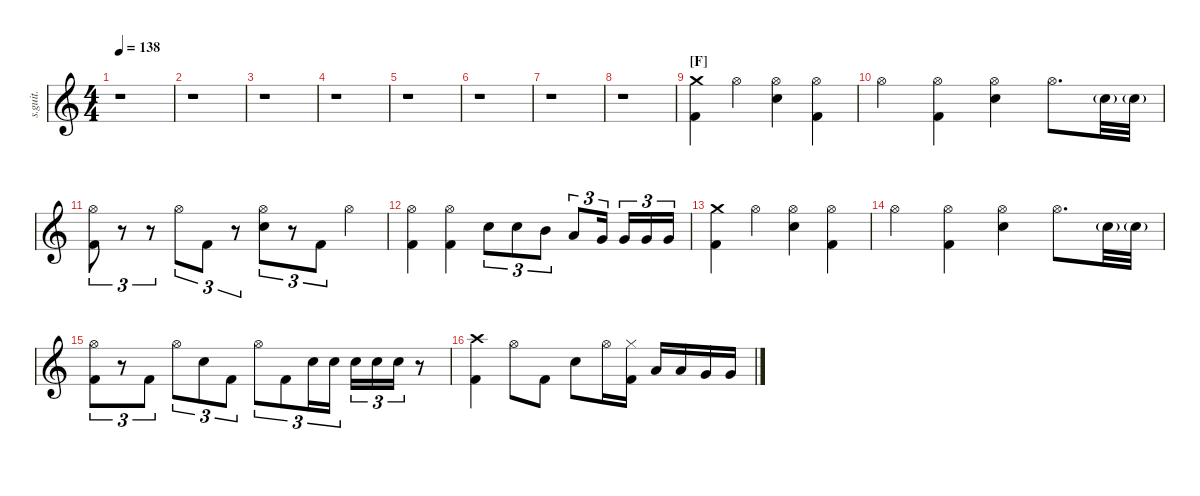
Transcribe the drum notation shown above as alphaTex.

\defaultSystemsLayout 4
\hideDynamics
\bracketExtendMode nobrackets
\track ("Nathan Camarena" "s.guit.") {instrument percussion}
\staff {score}
\articulation defaults
\ts (4 4)
\tempo 138
\clef g2
\ks c
r.1{dy fff} |
r.1 |
r.1 |
r.1 |
r.1 |
r.1 |
r.1 |
r.1 |
\section ("F" "")
("Kick (hit) 2" "Crash medium (hit)").4{lyrics (0 "") lyrics (1 "") lyrics (2 "") lyrics (3 "") lyrics (4 "") dy f} "Hi-Hat (open)".4{lyrics (0 "") lyrics (1 "") lyrics (2 "") lyrics (3 "") lyrics (4 "")} ("Snare (hit) 2" "Hi-Hat (open)").4{lyrics (0 "") lyrics (1 "") lyrics (2 "") lyrics (3 "") lyrics (4 "")} ("Hi-Hat (open)" "Kick (hit) 2").4{lyrics (0 "") lyrics (1 "") lyrics (2 "") lyrics (3 "") lyrics (4 "")} |
"Hi-Hat (open)".4{lyrics (0 "") lyrics (1 "") lyrics (2 "") lyrics (3 "") lyrics (4 "")} ("Hi-Hat (open)" "Kick (hit) 2").4{lyrics (0 "") lyrics (1 "") lyrics (2 "") lyrics (3 "") lyrics (4 "")} ("Snare (hit) 2" "Hi-Hat (open)").4{lyrics (0 "") lyrics (1 "") lyrics (2 "") lyrics (3 "") lyrics (4 "")} "Hi-Hat (open)".8{d lyrics (0 "") lyrics (1 "") lyrics (2 "") lyrics (3 "") lyrics (4 "")} "Snare (hit) 2"{g}.32{lyrics (0 "") lyrics (1 "") lyrics (2 "") lyrics (3 "") lyrics (4 "")} "Snare (hit) 2"{g}.32{lyrics (0 "") lyrics (1 "") lyrics (2 "") lyrics (3 "") lyrics (4 "")} |
("Kick (hit) 2" "Hi-Hat (open)").8{tu (3 2) lyrics (0 "") lyrics (1 "") lyrics (2 "") lyrics (3 "") lyrics (4 "")} r.8{tu (3 2)} r.8{tu (3 2)} "Hi-Hat (open)".8{tu (3 2) lyrics (0 "") lyrics (1 "") lyrics (2 "") lyrics (3 "") lyrics (4 "")} "Kick (hit) 2".8{tu (3 2) lyrics (0 "") lyrics (1 "") lyrics (2 "") lyrics (3 "") lyrics (4 "")} r.8{tu (3 2)} ("Snare (hit) 2" "Hi-Hat (open)").8{tu (3 2) lyrics (0 "") lyrics (1 "") lyrics (2 "") lyrics (3 "") lyrics (4 "")} r.8{tu (3 2)} "Kick (hit) 2".8{tu (3 2) lyrics (0 "") lyrics (1 "") lyrics (2 "") lyrics (3 "") lyrics (4 "")} "Hi-Hat (open)".4{lyrics (0 "") lyrics (1 "") lyrics (2 "") lyrics (3 "") lyrics (4 "")} |
("Hi-Hat (open)" "Kick (hit) 2").4{lyrics (0 "") lyrics (1 "") lyrics (2 "") lyrics (3 "") lyrics (4 "")} ("Hi-Hat (open)" "Kick (hit) 2").4{lyrics (0 "") lyrics (1 "") lyrics (2 "") lyrics (3 "") lyrics (4 "")} "Snare (hit) 2".8{tu (3 2) lyrics (0 "") lyrics (1 "") lyrics (2 "") lyrics (3 "") lyrics (4 "")} "Snare (hit) 2".8{tu (3 2) lyrics (0 "") lyrics (1 "") lyrics (2 "") lyrics (3 "") lyrics (4 "")} "Mid Tom (hit)".8{tu (3 2) lyrics (0 "") lyrics (1 "") lyrics (2 "") lyrics (3 "") lyrics (4 "") dy fff} "Low Tom (hit)".8{tu (3 2) lyrics (0 "") lyrics (1 "") lyrics (2 "") lyrics (3 "") lyrics (4 "")} "Very Low Tom (hit)".16{tu (3 2) lyrics (0 "") lyrics (1 "") lyrics (2 "") lyrics (3 "") lyrics (4 "")} "Very Low Tom (hit)".16{tu (3 2) lyrics (0 "") lyrics (1 "") lyrics (2 "") lyrics (3 "") lyrics (4 "")} "Very Low Tom (hit)".16{tu (3 2) lyrics (0 "") lyrics (1 "") lyrics (2 "") lyrics (3 "") lyrics (4 "")} "Very Low Tom (hit)".16{tu (3 2) lyrics (0 "") lyrics (1 "") lyrics (2 "") lyrics (3 "") lyrics (4 "")} |
("Kick (hit) 2" "Crash medium (hit)").4{lyrics (0 "") lyrics (1 "") lyrics (2 "") lyrics (3 "") lyrics (4 "") dy f} "Hi-Hat (open)".4{lyrics (0 "") lyrics (1 "") lyrics (2 "") lyrics (3 "") lyrics (4 "")} ("Snare (hit) 2" "Hi-Hat (open)").4{lyrics (0 "") lyrics (1 "") lyrics (2 "") lyrics (3 "") lyrics (4 "")} ("Hi-Hat (open)" "Kick (hit) 2").4{lyrics (0 "") lyrics (1 "") lyrics (2 "") lyrics (3 "") lyrics (4 "")} |
"Hi-Hat (open)".4{lyrics (0 "") lyrics (1 "") lyrics (2 "") lyrics (3 "") lyrics (4 "")} ("Hi-Hat (open)" "Kick (hit) 2").4{lyrics (0 "") lyrics (1 "") lyrics (2 "") lyrics (3 "") lyrics (4 "")} ("Snare (hit) 2" "Hi-Hat (open)").4{lyrics (0 "") lyrics (1 "") lyrics (2 "") lyrics (3 "") lyrics (4 "")} "Hi-Hat (open)".8{d lyrics (0 "") lyrics (1 "") lyrics (2 "") lyrics (3 "") lyrics (4 "")} "Snare (hit) 2"{g}.32{lyrics (0 "") lyrics (1 "") lyrics (2 "") lyrics (3 "") lyrics (4 "")} "Snare (hit) 2"{g}.32{lyrics (0 "") lyrics (1 "") lyrics (2 "") lyrics (3 "") lyrics (4 "")} |
("Kick (hit) 2" "Hi-Hat (open)").8{tu (3 2) lyrics (0 "") lyrics (1 "") lyrics (2 "") lyrics (3 "") lyrics (4 "")} r.8{tu (3 2)} "Kick (hit) 2".8{tu (3 2) lyrics (0 "") lyrics (1 "") lyrics (2 "") lyrics (3 "") lyrics (4 "")} "Hi-Hat (open)".8{tu (3 2) lyrics (0 "") lyrics (1 "") lyrics (2 "") lyrics (3 "") lyrics (4 "")} "Snare (hit) 2".8{tu (3 2) lyrics (0 "") lyrics (1 "") lyrics (2 "") lyrics (3 "") lyrics (4 "")} "Kick (hit) 2".8{tu (3 2) lyrics (0 "") lyrics (1 "") lyrics (2 "") lyrics (3 "") lyrics (4 "")} "Hi-Hat (open)".8{tu (3 2) lyrics (0 "") lyrics (1 "") lyrics (2 "") lyrics (3 "") lyrics (4 "")} "Kick (hit) 2".8{tu (3 2) lyrics (0 "") lyrics (1 "") lyrics (2 "") lyrics (3 "") lyrics (4 "")} "Snare (hit) 2".16{tu (3 2) lyrics (0 "") lyrics (1 "") lyrics (2 "") lyrics (3 "") lyrics (4 "")} "Snare (hit) 2".16{tu (3 2) lyrics (0 "") lyrics (1 "") lyrics (2 "") lyrics (3 "") lyrics (4 "")} "Snare (hit) 2".16{tu (3 2) lyrics (0 "") lyrics (1 "") lyrics (2 "") lyrics (3 "") lyrics (4 "")} "Snare (hit) 2".16{tu (3 2) lyrics (0 "") lyrics (1 "") lyrics (2 "") lyrics (3 "") lyrics (4 "")} "Snare (hit) 2".16{tu (3 2) lyrics (0 "") lyrics (1 "") lyrics (2 "") lyrics (3 "") lyrics (4 "")} r.8 |
("Crash high (hit)" "Kick (hit) 2").4{lyrics (0 "") lyrics (1 "") lyrics (2 "") lyrics (3 "") lyrics (4 "")} "Hi-Hat (open)".8{lyrics (0 "") lyrics (1 "") lyrics (2 "") lyrics (3 "") lyrics (4 "")} "Kick (hit) 2".8{lyrics (0 "") lyrics (1 "") lyrics (2 "") lyrics (3 "") lyrics (4 "")} "Snare (hit) 2".8{lyrics (0 "") lyrics (1 "") lyrics (2 "") lyrics (3 "") lyrics (4 "")} "Hi-Hat (open)".16{lyrics (0 "") lyrics (1 "") lyrics (2 "") lyrics (3 "") lyrics (4 "")} ("Kick (hit) 2" "Hi-Hat (closed)").16{lyrics (0 "") lyrics (1 "") lyrics (2 "") lyrics (3 "") lyrics (4 "")} "Low Tom (hit)".16{lyrics (0 "") lyrics (1 "") lyrics (2 "") lyrics (3 "") lyrics (4 "") dy fff} "Low Tom (hit)".16{lyrics (0 "") lyrics (1 "") lyrics (2 "") lyrics (3 "") lyrics (4 "")} "Very Low Tom (hit)".16{lyrics (0 "") lyrics (1 "") lyrics (2 "") lyrics (3 "") lyrics (4 "")} "Very Low Tom (hit)".16{lyrics (0 "") lyrics (1 "") lyrics (2 "") lyrics (3 "") lyrics (4 "")}
